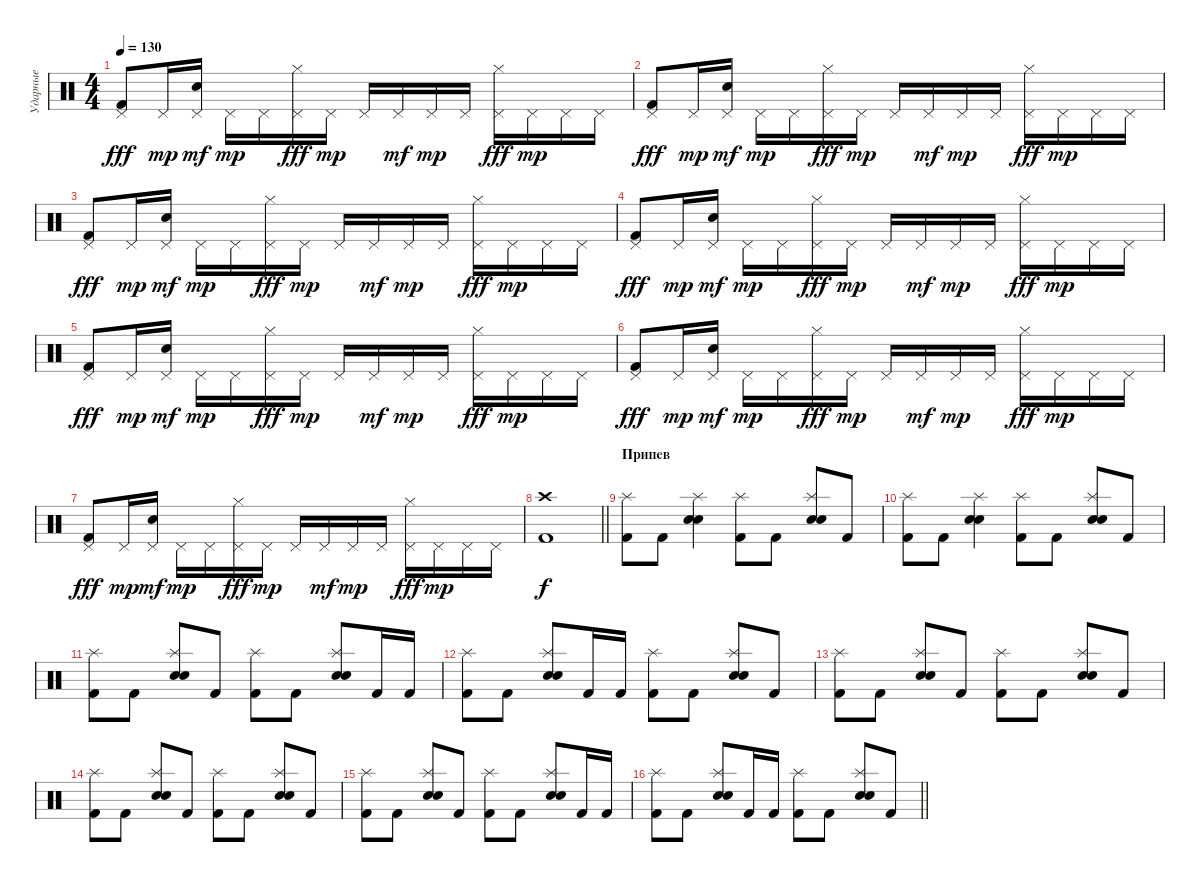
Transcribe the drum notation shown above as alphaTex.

\track ("Ударные" "Ударные") {instrument percussion}
\staff {score}
\articulation defaults
\ts (4 4)
\tempo 130
\clef neutral
\ks c
("Pedal Hi-Hat (hit)" "Kick (hit) 2").8{dy fff} "Pedal Hi-Hat (hit)".16{dy mp} ("Electric Snare (hit)" "Pedal Hi-Hat (hit)").16{dy mf} "Pedal Hi-Hat (hit)".16{dy mp} "Pedal Hi-Hat (hit)".16 ("Hi-Hat (closed)" "Pedal Hi-Hat (hit)").16{dy fff} "Pedal Hi-Hat (hit)".16{dy mp} "Pedal Hi-Hat (hit)".16 "Pedal Hi-Hat (hit)".16{dy mf} "Pedal Hi-Hat (hit)".16{dy mp} "Pedal Hi-Hat (hit)".16 ("Hi-Hat (closed)" "Pedal Hi-Hat (hit)").16{dy fff} "Pedal Hi-Hat (hit)".16{dy mp} "Pedal Hi-Hat (hit)".16 "Pedal Hi-Hat (hit)".16 |
("Pedal Hi-Hat (hit)" "Kick (hit) 2").8{dy fff} "Pedal Hi-Hat (hit)".16{dy mp} ("Electric Snare (hit)" "Pedal Hi-Hat (hit)").16{dy mf} "Pedal Hi-Hat (hit)".16{dy mp} "Pedal Hi-Hat (hit)".16 ("Hi-Hat (closed)" "Pedal Hi-Hat (hit)").16{dy fff} "Pedal Hi-Hat (hit)".16{dy mp} "Pedal Hi-Hat (hit)".16 "Pedal Hi-Hat (hit)".16{dy mf} "Pedal Hi-Hat (hit)".16{dy mp} "Pedal Hi-Hat (hit)".16 ("Hi-Hat (closed)" "Pedal Hi-Hat (hit)").16{dy fff} "Pedal Hi-Hat (hit)".16{dy mp} "Pedal Hi-Hat (hit)".16 "Pedal Hi-Hat (hit)".16 |
("Pedal Hi-Hat (hit)" "Kick (hit) 2").8{dy fff} "Pedal Hi-Hat (hit)".16{dy mp} ("Electric Snare (hit)" "Pedal Hi-Hat (hit)").16{dy mf} "Pedal Hi-Hat (hit)".16{dy mp} "Pedal Hi-Hat (hit)".16 ("Hi-Hat (closed)" "Pedal Hi-Hat (hit)").16{dy fff} "Pedal Hi-Hat (hit)".16{dy mp} "Pedal Hi-Hat (hit)".16 "Pedal Hi-Hat (hit)".16{dy mf} "Pedal Hi-Hat (hit)".16{dy mp} "Pedal Hi-Hat (hit)".16 ("Hi-Hat (closed)" "Pedal Hi-Hat (hit)").16{dy fff} "Pedal Hi-Hat (hit)".16{dy mp} "Pedal Hi-Hat (hit)".16 "Pedal Hi-Hat (hit)".16 |
("Pedal Hi-Hat (hit)" "Kick (hit) 2").8{dy fff} "Pedal Hi-Hat (hit)".16{dy mp} ("Electric Snare (hit)" "Pedal Hi-Hat (hit)").16{dy mf} "Pedal Hi-Hat (hit)".16{dy mp} "Pedal Hi-Hat (hit)".16 ("Hi-Hat (closed)" "Pedal Hi-Hat (hit)").16{dy fff} "Pedal Hi-Hat (hit)".16{dy mp} "Pedal Hi-Hat (hit)".16 "Pedal Hi-Hat (hit)".16{dy mf} "Pedal Hi-Hat (hit)".16{dy mp} "Pedal Hi-Hat (hit)".16 ("Hi-Hat (closed)" "Pedal Hi-Hat (hit)").16{dy fff} "Pedal Hi-Hat (hit)".16{dy mp} "Pedal Hi-Hat (hit)".16 "Pedal Hi-Hat (hit)".16 |
("Pedal Hi-Hat (hit)" "Kick (hit) 2").8{dy fff} "Pedal Hi-Hat (hit)".16{dy mp} ("Electric Snare (hit)" "Pedal Hi-Hat (hit)").16{dy mf} "Pedal Hi-Hat (hit)".16{dy mp} "Pedal Hi-Hat (hit)".16 ("Hi-Hat (closed)" "Pedal Hi-Hat (hit)").16{dy fff} "Pedal Hi-Hat (hit)".16{dy mp} "Pedal Hi-Hat (hit)".16 "Pedal Hi-Hat (hit)".16{dy mf} "Pedal Hi-Hat (hit)".16{dy mp} "Pedal Hi-Hat (hit)".16 ("Hi-Hat (closed)" "Pedal Hi-Hat (hit)").16{dy fff} "Pedal Hi-Hat (hit)".16{dy mp} "Pedal Hi-Hat (hit)".16 "Pedal Hi-Hat (hit)".16 |
("Pedal Hi-Hat (hit)" "Kick (hit) 2").8{dy fff} "Pedal Hi-Hat (hit)".16{dy mp} ("Electric Snare (hit)" "Pedal Hi-Hat (hit)").16{dy mf} "Pedal Hi-Hat (hit)".16{dy mp} "Pedal Hi-Hat (hit)".16 ("Hi-Hat (closed)" "Pedal Hi-Hat (hit)").16{dy fff} "Pedal Hi-Hat (hit)".16{dy mp} "Pedal Hi-Hat (hit)".16 "Pedal Hi-Hat (hit)".16{dy mf} "Pedal Hi-Hat (hit)".16{dy mp} "Pedal Hi-Hat (hit)".16 ("Hi-Hat (closed)" "Pedal Hi-Hat (hit)").16{dy fff} "Pedal Hi-Hat (hit)".16{dy mp} "Pedal Hi-Hat (hit)".16 "Pedal Hi-Hat (hit)".16 |
("Pedal Hi-Hat (hit)" "Kick (hit) 2").8{dy fff} "Pedal Hi-Hat (hit)".16{dy mp} ("Electric Snare (hit)" "Pedal Hi-Hat (hit)").16{dy mf} "Pedal Hi-Hat (hit)".16{dy mp} "Pedal Hi-Hat (hit)".16 ("Hi-Hat (closed)" "Pedal Hi-Hat (hit)").16{dy fff} "Pedal Hi-Hat (hit)".16{dy mp} "Pedal Hi-Hat (hit)".16 "Pedal Hi-Hat (hit)".16{dy mf} "Pedal Hi-Hat (hit)".16{dy mp} "Pedal Hi-Hat (hit)".16 ("Hi-Hat (closed)" "Pedal Hi-Hat (hit)").16{dy fff} "Pedal Hi-Hat (hit)".16{dy mp} "Pedal Hi-Hat (hit)".16 "Pedal Hi-Hat (hit)".16 |
\barLineRight lightlight
("Crash high (hit)" "Kick (hit) 2").1{dy f volume 12} |
\section ("" "Припев")
("Splash (hit)" "Kick (hit) 2").8 "Kick (hit) 2".8 ("Splash (hit)" "Electric Snare (hit)" "Snare (hit) 2").4 ("Splash (hit)" "Kick (hit) 2").8 "Kick (hit) 2".8 ("Splash (hit)" "Electric Snare (hit)" "Snare (hit) 2").8 "Kick (hit) 2".8 |
("Splash (hit)" "Kick (hit) 2").8 "Kick (hit) 2".8 ("Splash (hit)" "Electric Snare (hit)" "Snare (hit) 2").4 ("Splash (hit)" "Kick (hit) 2").8 "Kick (hit) 2".8 ("Splash (hit)" "Electric Snare (hit)" "Snare (hit) 2").8 "Kick (hit) 2".8 |
("Splash (hit)" "Kick (hit) 2").8 "Kick (hit) 2".8 ("Splash (hit)" "Electric Snare (hit)" "Snare (hit) 2").8 "Kick (hit) 2".8 ("Splash (hit)" "Kick (hit) 2").8 "Kick (hit) 2".8 ("Splash (hit)" "Electric Snare (hit)" "Snare (hit) 2").8 "Kick (hit) 2".16 "Kick (hit) 2".16 |
("Splash (hit)" "Kick (hit) 2").8 "Kick (hit) 2".8 ("Splash (hit)" "Electric Snare (hit)" "Snare (hit) 2").8 "Kick (hit) 2".16 "Kick (hit) 2".16 ("Splash (hit)" "Kick (hit) 2").8 "Kick (hit) 2".8 ("Splash (hit)" "Electric Snare (hit)" "Snare (hit) 2").8 "Kick (hit) 2".8 |
("Splash (hit)" "Kick (hit) 2").8 "Kick (hit) 2".8 ("Splash (hit)" "Electric Snare (hit)" "Snare (hit) 2").8 "Kick (hit) 2".8 ("Splash (hit)" "Kick (hit) 2").8 "Kick (hit) 2".8 ("Splash (hit)" "Electric Snare (hit)" "Snare (hit) 2").8 "Kick (hit) 2".8 |
("Splash (hit)" "Kick (hit) 2").8 "Kick (hit) 2".8 ("Splash (hit)" "Electric Snare (hit)" "Snare (hit) 2").8 "Kick (hit) 2".8 ("Splash (hit)" "Kick (hit) 2").8 "Kick (hit) 2".8 ("Splash (hit)" "Electric Snare (hit)" "Snare (hit) 2").8 "Kick (hit) 2".8 |
("Splash (hit)" "Kick (hit) 2").8 "Kick (hit) 2".8 ("Splash (hit)" "Electric Snare (hit)" "Snare (hit) 2").8 "Kick (hit) 2".8 ("Splash (hit)" "Kick (hit) 2").8 "Kick (hit) 2".8 ("Splash (hit)" "Electric Snare (hit)" "Snare (hit) 2").8 "Kick (hit) 2".16 "Kick (hit) 2".16 |
\barLineRight lightlight
("Splash (hit)" "Kick (hit) 2").8 "Kick (hit) 2".8 ("Splash (hit)" "Electric Snare (hit)" "Snare (hit) 2").8 "Kick (hit) 2".16 "Kick (hit) 2".16 ("Splash (hit)" "Kick (hit) 2").8 "Kick (hit) 2".8 ("Splash (hit)" "Electric Snare (hit)" "Snare (hit) 2").8 "Kick (hit) 2".8
